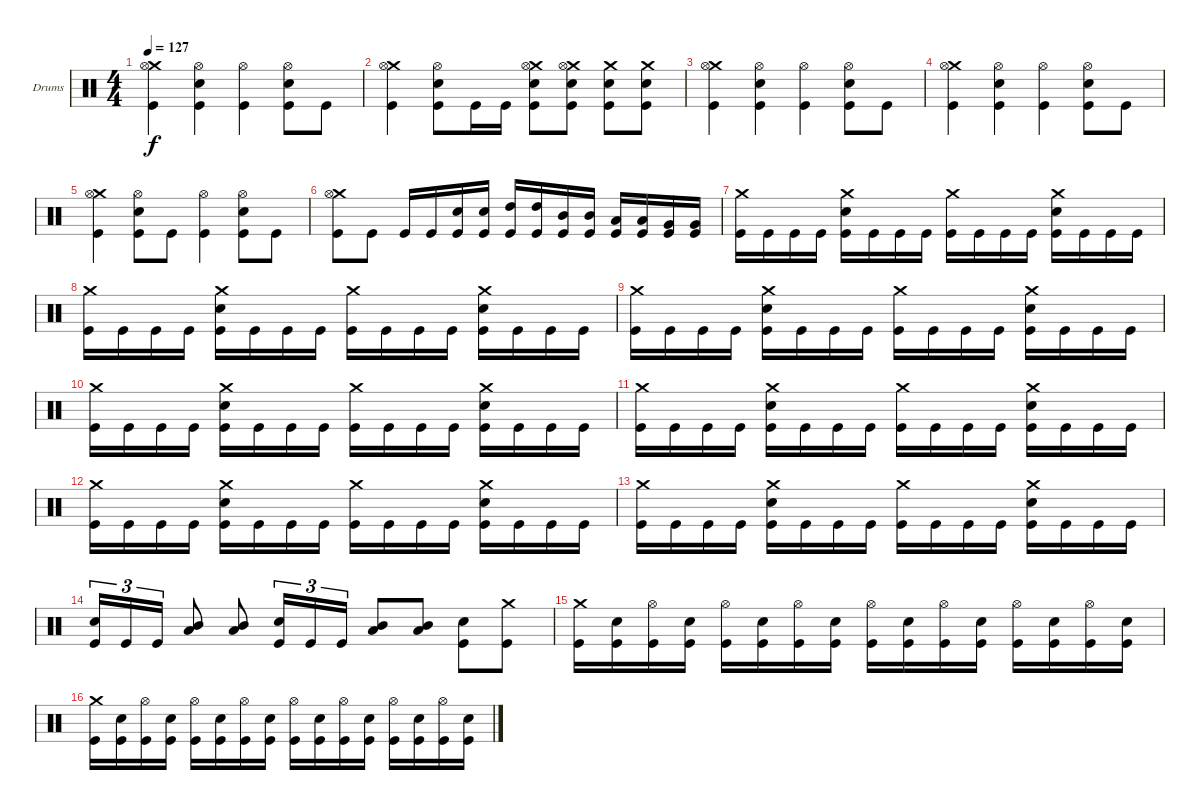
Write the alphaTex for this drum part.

\bracketExtendMode groupsimilarinstruments
\firstSystemTrackNameOrientation horizontal
\otherSystemsTrackNameOrientation horizontal
\track ("Drumkit" "Drums") {instrument percussion}
\staff {score}
\articulation defaults
\ts (4 4)
\tempo 127
\clef neutral
\ks c
("Crash medium (hit)" "Hi-Hat (open)" "Kick (hit)").4{dy f} ("Hi-Hat (open)" "Snare (hit) 2" "Kick (hit)").4 ("Hi-Hat (open)" "Kick (hit)").4 ("Hi-Hat (open)" "Snare (hit) 2" "Kick (hit)").8 "Kick (hit)".8 |
("Crash medium (hit)" "Hi-Hat (open)" "Kick (hit)").4 ("Hi-Hat (open)" "Snare (hit) 2" "Kick (hit)").8 "Kick (hit)".16 "Kick (hit)".16 ("Crash medium (hit)" "Hi-Hat (open)" "Snare (hit) 2" "Kick (hit)").8 ("Crash medium (hit)" "Hi-Hat (open)" "Snare (hit) 2" "Kick (hit)").8 ("Crash medium (hit)" "Snare (hit) 2" "Kick (hit)").8 ("Crash medium (hit)" "Snare (hit) 2" "Kick (hit)").8 |
("Crash medium (hit)" "Hi-Hat (open)" "Kick (hit)").4 ("Hi-Hat (open)" "Snare (hit) 2" "Kick (hit)").4 ("Hi-Hat (open)" "Kick (hit)").4 ("Hi-Hat (open)" "Snare (hit) 2" "Kick (hit)").8 "Kick (hit)".8 |
("Crash medium (hit)" "Hi-Hat (open)" "Kick (hit)").4 ("Hi-Hat (open)" "Snare (hit) 2" "Kick (hit)").4 ("Hi-Hat (open)" "Kick (hit)").4 ("Hi-Hat (open)" "Snare (hit) 2" "Kick (hit)").8 "Kick (hit)".8 |
("Crash medium (hit)" "Hi-Hat (open)" "Kick (hit)").4 ("Hi-Hat (open)" "Snare (hit) 2" "Kick (hit)").8 "Kick (hit)".8 ("Hi-Hat (open)" "Kick (hit)").4 ("Hi-Hat (open)" "Snare (hit) 2" "Kick (hit)").8 "Kick (hit)".8 |
("Crash medium (hit)" "Hi-Hat (open)" "Kick (hit)").8 "Kick (hit)".8 "Kick (hit)".16 "Kick (hit)".16 ("Snare (hit) 2" "Kick (hit)").16 ("Snare (hit) 2" "Kick (hit)").16 ("High Tom (hit)" "Kick (hit)").16 ("High Tom (hit)" "Kick (hit)").16 ("Mid Tom (hit)" "Kick (hit)").16 ("Mid Tom (hit)" "Kick (hit)").16 ("Low Tom (hit)" "Kick (hit)").16 ("Low Tom (hit)" "Kick (hit)").16 ("Very Low Tom (hit)" "Kick (hit)").16 ("Very Low Tom (hit)" "Kick (hit)").16 |
("Crash medium (hit)" "Kick (hit)").16 "Kick (hit)".16 "Kick (hit)".16 "Kick (hit)".16 ("Crash medium (hit)" "Snare (hit) 2" "Kick (hit)").16 "Kick (hit)".16 "Kick (hit)".16 "Kick (hit)".16 ("Crash medium (hit)" "Kick (hit)").16 "Kick (hit)".16 "Kick (hit)".16 "Kick (hit)".16 ("Crash medium (hit)" "Snare (hit) 2" "Kick (hit)").16 "Kick (hit)".16 "Kick (hit)".16 "Kick (hit)".16 |
("Crash medium (hit)" "Kick (hit)").16 "Kick (hit)".16 "Kick (hit)".16 "Kick (hit)".16 ("Crash medium (hit)" "Snare (hit) 2" "Kick (hit)").16 "Kick (hit)".16 "Kick (hit)".16 "Kick (hit)".16 ("Crash medium (hit)" "Kick (hit)").16 "Kick (hit)".16 "Kick (hit)".16 "Kick (hit)".16 ("Crash medium (hit)" "Snare (hit) 2" "Kick (hit)").16 "Kick (hit)".16 "Kick (hit)".16 "Kick (hit)".16 |
("Crash medium (hit)" "Kick (hit)").16 "Kick (hit)".16 "Kick (hit)".16 "Kick (hit)".16 ("Crash medium (hit)" "Snare (hit) 2" "Kick (hit)").16 "Kick (hit)".16 "Kick (hit)".16 "Kick (hit)".16 ("Crash medium (hit)" "Kick (hit)").16 "Kick (hit)".16 "Kick (hit)".16 "Kick (hit)".16 ("Crash medium (hit)" "Snare (hit) 2" "Kick (hit)").16 "Kick (hit)".16 "Kick (hit)".16 "Kick (hit)".16 |
("Crash medium (hit)" "Kick (hit)").16 "Kick (hit)".16 "Kick (hit)".16 "Kick (hit)".16 ("Crash medium (hit)" "Snare (hit) 2" "Kick (hit)").16 "Kick (hit)".16 "Kick (hit)".16 "Kick (hit)".16 ("Crash medium (hit)" "Kick (hit)").16 "Kick (hit)".16 "Kick (hit)".16 "Kick (hit)".16 ("Crash medium (hit)" "Snare (hit) 2" "Kick (hit)").16 "Kick (hit)".16 "Kick (hit)".16 "Kick (hit)".16 |
("Crash medium (hit)" "Kick (hit)").16 "Kick (hit)".16 "Kick (hit)".16 "Kick (hit)".16 ("Crash medium (hit)" "Snare (hit) 2" "Kick (hit)").16 "Kick (hit)".16 "Kick (hit)".16 "Kick (hit)".16 ("Crash medium (hit)" "Kick (hit)").16 "Kick (hit)".16 "Kick (hit)".16 "Kick (hit)".16 ("Crash medium (hit)" "Snare (hit) 2" "Kick (hit)").16 "Kick (hit)".16 "Kick (hit)".16 "Kick (hit)".16 |
("Crash medium (hit)" "Kick (hit)").16 "Kick (hit)".16 "Kick (hit)".16 "Kick (hit)".16 ("Crash medium (hit)" "Snare (hit) 2" "Kick (hit)").16 "Kick (hit)".16 "Kick (hit)".16 "Kick (hit)".16 ("Crash medium (hit)" "Kick (hit)").16 "Kick (hit)".16 "Kick (hit)".16 "Kick (hit)".16 ("Crash medium (hit)" "Snare (hit) 2" "Kick (hit)").16 "Kick (hit)".16 "Kick (hit)".16 "Kick (hit)".16 |
("Crash medium (hit)" "Kick (hit)").16 "Kick (hit)".16 "Kick (hit)".16 "Kick (hit)".16 ("Crash medium (hit)" "Snare (hit) 2" "Kick (hit)").16 "Kick (hit)".16 "Kick (hit)".16 "Kick (hit)".16 ("Crash medium (hit)" "Kick (hit)").16 "Kick (hit)".16 "Kick (hit)".16 "Kick (hit)".16 ("Crash medium (hit)" "Snare (hit) 2" "Kick (hit)").16 "Kick (hit)".16 "Kick (hit)".16 "Kick (hit)".16 |
("Snare (hit) 2" "Kick (hit)").16{tu (3 2)} "Kick (hit)".16{tu (3 2)} "Kick (hit)".16{tu (3 2)} ("Low Tom (hit)" "Mid Tom (hit)").8 ("Low Tom (hit)" "Mid Tom (hit)").8 ("Snare (hit) 2" "Kick (hit)").16{tu (3 2)} "Kick (hit)".16{tu (3 2)} "Kick (hit)".16{tu (3 2)} ("Low Tom (hit)" "Mid Tom (hit)").8 ("Low Tom (hit)" "Mid Tom (hit)").8 ("Snare (hit) 2" "Kick (hit)").8 ("Crash medium (hit)" "Kick (hit)").8 |
("Crash medium (hit)" "Kick (hit)").16 ("Snare (hit) 2" "Kick (hit)").16 ("Hi-Hat (open)" "Kick (hit)").16 ("Snare (hit) 2" "Kick (hit)").16 ("Hi-Hat (open)" "Kick (hit)").16 ("Snare (hit) 2" "Kick (hit)").16 ("Hi-Hat (open)" "Kick (hit)").16 ("Snare (hit) 2" "Kick (hit)").16 ("Hi-Hat (open)" "Kick (hit)").16 ("Snare (hit) 2" "Kick (hit)").16 ("Hi-Hat (open)" "Kick (hit)").16 ("Snare (hit) 2" "Kick (hit)").16 ("Hi-Hat (open)" "Kick (hit)").16 ("Snare (hit) 2" "Kick (hit)").16 ("Hi-Hat (open)" "Kick (hit)").16 ("Snare (hit) 2" "Kick (hit)").16 |
("Crash medium (hit)" "Kick (hit)").16 ("Snare (hit) 2" "Kick (hit)").16 ("Hi-Hat (open)" "Kick (hit)").16 ("Snare (hit) 2" "Kick (hit)").16 ("Hi-Hat (open)" "Kick (hit)").16 ("Snare (hit) 2" "Kick (hit)").16 ("Hi-Hat (open)" "Kick (hit)").16 ("Snare (hit) 2" "Kick (hit)").16 ("Hi-Hat (open)" "Kick (hit)").16 ("Snare (hit) 2" "Kick (hit)").16 ("Hi-Hat (open)" "Kick (hit)").16 ("Snare (hit) 2" "Kick (hit)").16 ("Hi-Hat (open)" "Kick (hit)").16 ("Snare (hit) 2" "Kick (hit)").16 ("Hi-Hat (open)" "Kick (hit)").16 ("Snare (hit) 2" "Kick (hit)").16
